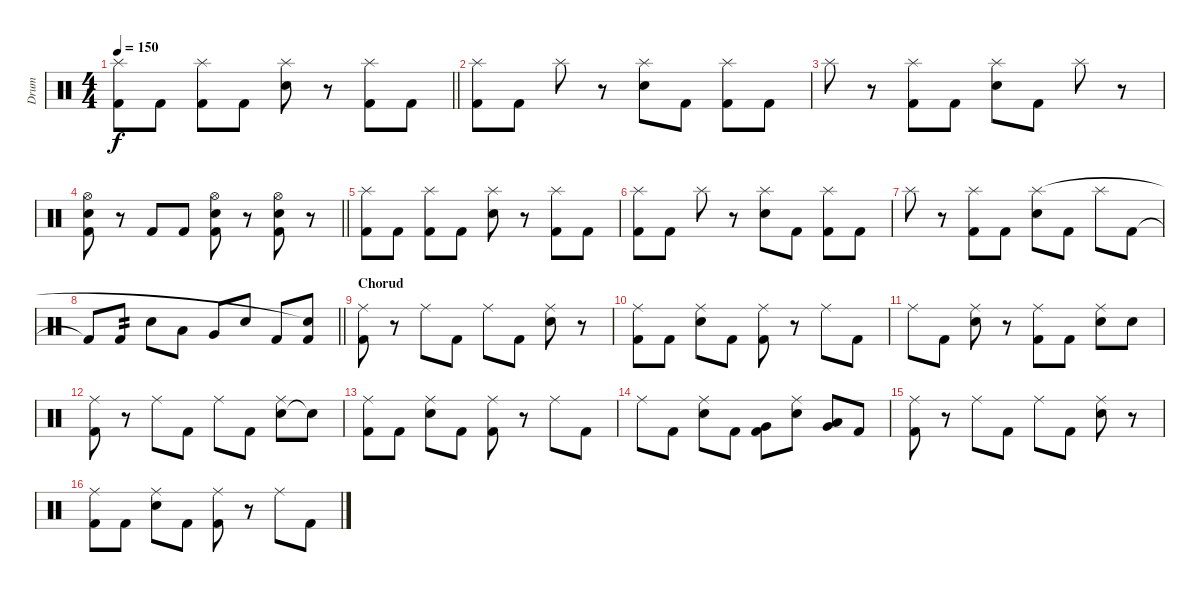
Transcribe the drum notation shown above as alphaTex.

\track ("Drum" "Drum") {instrument percussion}
\staff {score}
\articulation defaults
\ts (4 4)
\tempo 150
\clef neutral
\barLineRight lightlight
\ks c
("Kick (hit) 2" "Splash (hit)").8{dy f} "Kick (hit) 2".8 ("Kick (hit) 2" "Splash (hit)").8 "Kick (hit) 2".8 ("Electric Snare (hit)" "Splash (hit)").8 r.8 ("Kick (hit) 2" "Splash (hit)").8 "Kick (hit) 2".8 |
("Kick (hit) 2" "Splash (hit)").8 "Kick (hit) 2".8 "Splash (hit)".8 r.8 ("Electric Snare (hit)" "Splash (hit)").8 "Kick (hit) 2".8 ("Kick (hit) 2" "Splash (hit)").8 "Kick (hit) 2".8 |
"Splash (hit)".8 r.8 ("Kick (hit) 2" "Splash (hit)").8 "Kick (hit) 2".8 ("Electric Snare (hit)" "Splash (hit)").8 "Kick (hit) 2".8 "Splash (hit)".8 r.8 |
\barLineRight lightlight
("Kick (hit) 2" "Electric Snare (hit)" "Hi-Hat (open)").8 r.8 "Kick (hit) 2".8 "Kick (hit) 2".8 ("Kick (hit) 2" "Electric Snare (hit)" "Hi-Hat (open)").8 r.8 ("Kick (hit) 2" "Electric Snare (hit)" "Hi-Hat (open)").8 r.8 |
("Kick (hit) 2" "Splash (hit)").8 "Kick (hit) 2".8 ("Kick (hit) 2" "Splash (hit)").8 "Kick (hit) 2".8 ("Electric Snare (hit)" "Splash (hit)").8 r.8 ("Kick (hit) 2" "Splash (hit)").8 "Kick (hit) 2".8 |
("Kick (hit) 2" "Splash (hit)").8 "Kick (hit) 2".8 "Splash (hit)".8 r.8 ("Electric Snare (hit)" "Splash (hit)").8 "Kick (hit) 2".8 ("Kick (hit) 2" "Splash (hit)").8 "Kick (hit) 2".8 |
"Splash (hit)".8 r.8 ("Kick (hit) 2" "Splash (hit)").8 "Kick (hit) 2".8 ("Electric Snare (hit)" "Splash (hit)").8 "Kick (hit) 2".8 "Splash (hit)".8 "Kick (hit) 2".8 |
\barLineRight lightlight "Kick (hit) 2"{t}.8 "Kick (hit) 2".8{tp 2} "Electric Snare (hit)".8 "Low Tom (hit)".8 "Very Low Tom (hit)".8 "Electric Snare (hit)".8 "Kick (hit) 2".8
("Kick (hit) 2" "Snare (hit)"{t}).8 |
\section ("" "Chorud")
("Kick (hit) 2" "Ride (middle)").8 r.8 "Ride (middle)".8 "Kick (hit) 2".8 "Ride (middle)".8 "Kick (hit) 2".8 ("Electric Snare (hit)" "Ride (middle)").8 r.8 |
("Kick (hit) 2" "Ride (middle)").8 "Kick (hit) 2".8 ("Electric Snare (hit)" "Ride (middle)").8 "Kick (hit) 2".8 ("Kick (hit) 2" "Ride (middle)").8 r.8 "Ride (middle)".8 "Kick (hit) 2".8 |
"Ride (middle)".8 "Kick (hit) 2".8 ("Electric Snare (hit)" "Ride (middle)").8 r.8 ("Kick (hit) 2" "Ride (middle)").8 "Kick (hit) 2".8 ("Electric Snare (hit)" "Ride (middle)").8 "Electric Snare (hit)".8 |
("Kick (hit) 2" "Ride (middle)").8 r.8 "Ride (middle)".8 "Kick (hit) 2".8 "Ride (middle)".8 "Kick (hit) 2".8 ("Electric Snare (hit)" "Ride (middle)").8 "Snare (hit)"{t}.8 |
("Kick (hit) 2" "Ride (middle)").8 "Kick (hit) 2".8 ("Electric Snare (hit)" "Ride (middle)").8 "Kick (hit) 2".8 ("Kick (hit) 2" "Ride (middle)").8 r.8 "Ride (middle)".8 "Kick (hit) 2".8 |
"Ride (middle)".8 "Kick (hit) 2".8 ("Electric Snare (hit)" "Ride (middle)").8 "Kick (hit) 2".8 ("Kick (hit) 2" "Very Low Tom (hit)").8 ("Electric Snare (hit)" "Ride (middle)").8 ("Very Low Tom (hit)" "Low Tom (hit)").8 "Kick (hit) 2".8 |
("Kick (hit) 2" "Ride (middle)").8 r.8 "Ride (middle)".8 "Kick (hit) 2".8 "Ride (middle)".8 "Kick (hit) 2".8 ("Electric Snare (hit)" "Ride (middle)").8 r.8 |
("Kick (hit) 2" "Ride (middle)").8 "Kick (hit) 2".8 ("Electric Snare (hit)" "Ride (middle)").8 "Kick (hit) 2".8 ("Kick (hit) 2" "Ride (middle)").8 r.8 "Ride (middle)".8 "Kick (hit) 2".8
